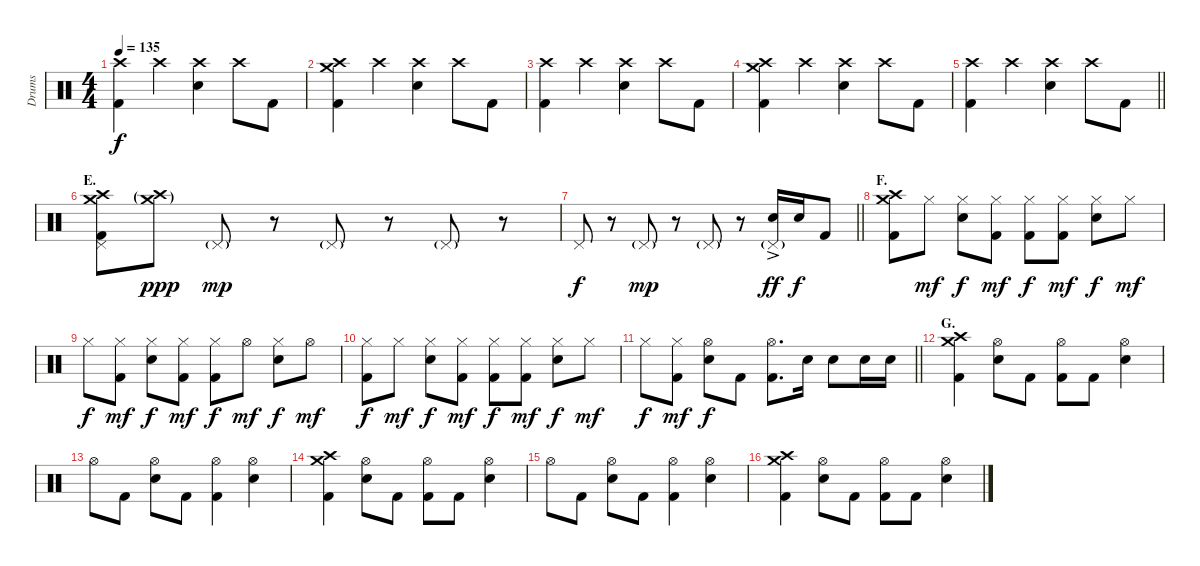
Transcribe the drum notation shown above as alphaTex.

\track ("Drums" "Drums") {instrument percussion}
\staff {score}
\articulation defaults
\ts (4 4)
\tempo 135
\clef neutral
\ks c
("Crash high (hit)" "Kick (hit) 2").4{dy f} "Crash high (hit)".4 ("Crash high (hit)" "Electric Snare (hit)").4 "Crash high (hit)".8 "Kick (hit) 2".8 |
("Crash medium (hit)" "Crash high (hit)" "Kick (hit) 2").4 "Crash high (hit)".4 ("Crash high (hit)" "Electric Snare (hit)").4 "Crash high (hit)".8 "Kick (hit) 2".8 |
("Crash high (hit)" "Kick (hit) 2").4 "Crash high (hit)".4 ("Crash high (hit)" "Electric Snare (hit)").4 "Crash high (hit)".8 "Kick (hit) 2".8 |
("Crash medium (hit)" "Crash high (hit)" "Kick (hit) 2").4 "Crash high (hit)".4 ("Crash high (hit)" "Electric Snare (hit)").4 "Crash high (hit)".8 "Kick (hit) 2".8 |
\barLineRight lightlight
("Crash high (hit)" "Kick (hit) 2").4 "Crash high (hit)".4 ("Crash high (hit)" "Electric Snare (hit)").4 "Crash high (hit)".8 "Kick (hit) 2".8 |
\section ("" "E.")
("Crash medium (hit)" "Crash high (hit)" "Pedal Hi-Hat (hit)" "Kick (hit) 2").8 ("Crash medium (hit)"{g} "Crash high (hit)"{g}).8{dy ppp} "Pedal Hi-Hat (hit)"{g}.8{dy mp} r.8 "Pedal Hi-Hat (hit)"{g}.8 r.8 "Pedal Hi-Hat (hit)"{g}.8 r.8 |
\barLineRight lightlight "Pedal Hi-Hat (hit)".8{dy f}
r.8 "Pedal Hi-Hat (hit)"{g}.8{dy mp} r.8 "Pedal Hi-Hat (hit)"{g}.8 r.8 ("Pedal Hi-Hat (hit)"{g} "Electric Snare (hit)"{ac}).16{dy ff} "Electric Snare (hit)".16{dy f} "Kick (hit) 2".8 |
\section ("" "F.")
("Crash medium (hit)" "Crash high (hit)" "Kick (hit) 2").8 "Hi-Hat (closed)".8{dy mf} ("Hi-Hat (closed)" "Electric Snare (hit)").8{dy f} ("Hi-Hat (closed)" "Kick (hit) 2").8{dy mf} ("Hi-Hat (closed)" "Kick (hit) 2").8{dy f} ("Hi-Hat (closed)" "Kick (hit) 2").8{dy mf} ("Hi-Hat (closed)" "Electric Snare (hit)").8{dy f} "Hi-Hat (closed)".8{dy mf} |
"Hi-Hat (closed)".8{dy f} ("Hi-Hat (closed)" "Kick (hit) 2").8{dy mf} ("Hi-Hat (closed)" "Electric Snare (hit)").8{dy f} ("Hi-Hat (closed)" "Kick (hit) 2").8{dy mf} ("Hi-Hat (closed)" "Kick (hit) 2").8{dy f} "Hi-Hat (open)".8{dy mf} ("Hi-Hat (closed)" "Electric Snare (hit)").8{dy f} "Hi-Hat (open)".8{dy mf} |
("Hi-Hat (closed)" "Kick (hit) 2").8{dy f} "Hi-Hat (closed)".8{dy mf} ("Hi-Hat (closed)" "Electric Snare (hit)").8{dy f} ("Hi-Hat (closed)" "Kick (hit) 2").8{dy mf} ("Hi-Hat (closed)" "Kick (hit) 2").8{dy f} ("Hi-Hat (closed)" "Kick (hit) 2").8{dy mf} ("Hi-Hat (closed)" "Electric Snare (hit)").8{dy f} "Hi-Hat (closed)".8{dy mf} |
\barLineRight lightlight "Hi-Hat (closed)".8{dy f}
("Hi-Hat (closed)" "Kick (hit) 2").8{dy mf} ("Hi-Hat (open)" "Electric Snare (hit)").8{dy f} "Kick (hit) 2".8 ("Hi-Hat (open)" "Kick (hit) 2").8{d} "Electric Snare (hit)".16 "Electric Snare (hit)".8 "Electric Snare (hit)".16 "Electric Snare (hit)".16 |
\section ("" "G.")
("Crash medium (hit)" "Crash high (hit)" "Kick (hit) 2").4 ("Hi-Hat (open)" "Electric Snare (hit)").8 "Kick (hit) 2".8 ("Hi-Hat (open)" "Kick (hit) 2").8 "Kick (hit) 2".8 ("Hi-Hat (open)" "Electric Snare (hit)").4 |
"Hi-Hat (open)".8 "Kick (hit) 2".8 ("Hi-Hat (open)" "Electric Snare (hit)").8 "Kick (hit) 2".8 ("Hi-Hat (open)" "Kick (hit) 2").4 ("Hi-Hat (open)" "Electric Snare (hit)").4 |
("Crash medium (hit)" "Crash high (hit)" "Kick (hit) 2").4 ("Hi-Hat (open)" "Electric Snare (hit)").8 "Kick (hit) 2".8 ("Hi-Hat (open)" "Kick (hit) 2").8 "Kick (hit) 2".8 ("Hi-Hat (open)" "Electric Snare (hit)").4 |
"Hi-Hat (open)".8 "Kick (hit) 2".8 ("Hi-Hat (open)" "Electric Snare (hit)").8 "Kick (hit) 2".8 ("Hi-Hat (open)" "Kick (hit) 2").4 ("Hi-Hat (open)" "Electric Snare (hit)").4 |
("Crash medium (hit)" "Crash high (hit)" "Kick (hit) 2").4 ("Hi-Hat (open)" "Electric Snare (hit)").8 "Kick (hit) 2".8 ("Hi-Hat (open)" "Kick (hit) 2").8 "Kick (hit) 2".8 ("Hi-Hat (open)" "Electric Snare (hit)").4
